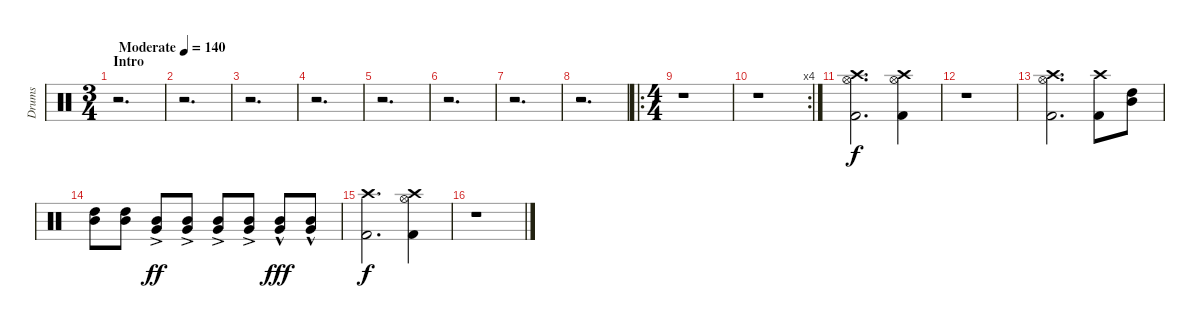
\track ("Drums" "Drums") {instrument percussion}
\staff {score}
\articulation defaults
\ts (3 4)
\section ("" "Intro")
\tempo (140 "Moderate")
\clef neutral
\ks c
r.2{d dy f} |
r.2{d} |
r.2{d} |
r.2{d} |
r.2{d} |
r.2{d} |
r.2{d} |
r.2{d} |
\ro
\ts (4 4)
r.1 |
\rc 4
r.1 |
("Crash high (hit)" "Hi-Hat (open)" "Kick (hit) 2").2{d} ("Crash high (hit)" "Hi-Hat (open)" "Kick (hit) 2").4 |
r.1 |
("Crash high (hit)" "Hi-Hat (open)" "Kick (hit) 2").2{d} ("Crash high (hit)" "Kick (hit) 2").8 ("High Tom (hit)" "Mid Tom (hit)").8 |
("High Tom (hit)" "Mid Tom (hit)").8 ("High Tom (hit)" "Mid Tom (hit)").8 ("Mid Tom (hit)"{ac} "Very Low Tom (hit)"{ac}).8{dy ff} ("Mid Tom (hit)"{ac} "Very Low Tom (hit)"{ac}).8 ("Mid Tom (hit)"{ac} "Very Low Tom (hit)"{ac}).8 ("Mid Tom (hit)"{ac} "Very Low Tom (hit)"{ac}).8 ("Mid Tom (hit)"{hac} "Very Low Tom (hit)"{hac}).8{dy fff} ("Mid Tom (hit)"{hac} "Very Low Tom (hit)"{hac}).8 |
("Crash high (hit)" "Kick (hit) 2").2{d dy f} ("Crash high (hit)" "Hi-Hat (open)" "Kick (hit) 2").4 |
r.1
